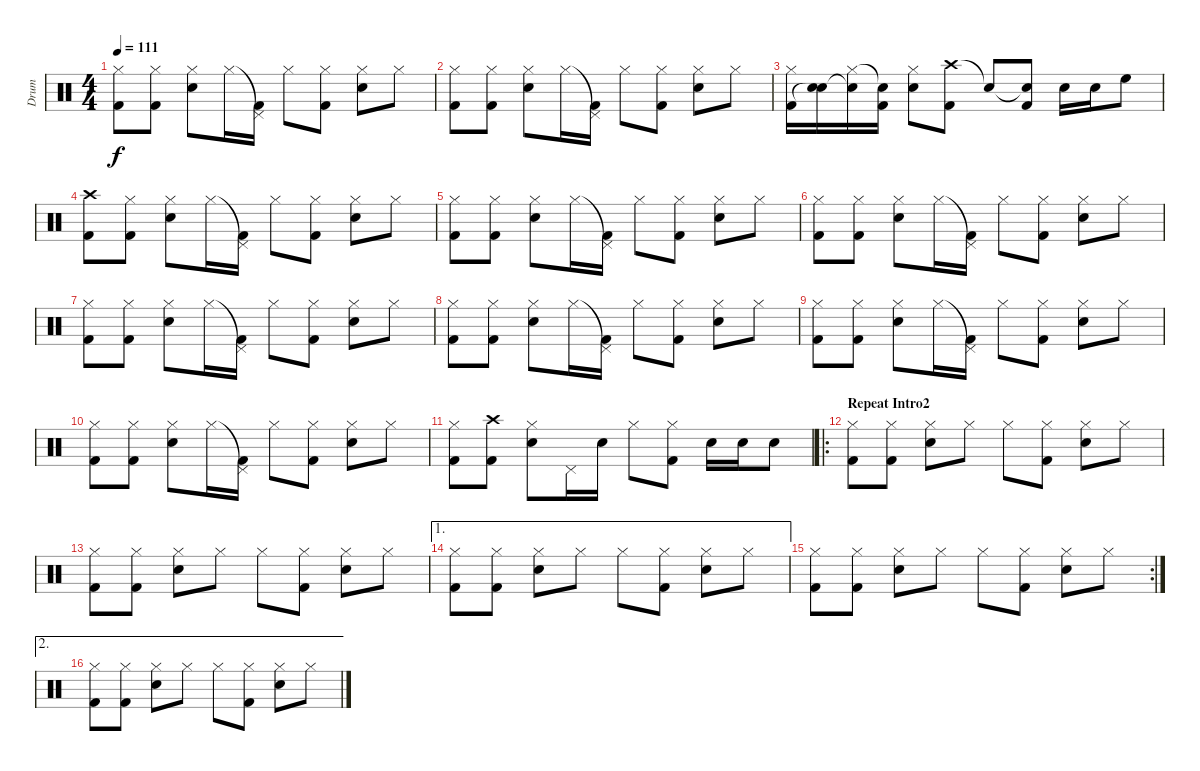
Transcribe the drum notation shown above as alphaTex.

\track ("Drum" "Drum") {instrument percussion}
\staff {score}
\articulation defaults
\ts (4 4)
\tempo 111
\clef neutral
\ks c
("Hi-Hat (closed)" "Kick (hit) 2").8{dy f} ("Hi-Hat (closed)" "Kick (hit) 2").8 ("Hi-Hat (closed)" "Snare (hit) 2").8 "Hi-Hat (closed)".16 ("Pedal Hi-Hat (hit)"{t} "Kick (hit) 2").16 "Hi-Hat (closed)".8 ("Hi-Hat (closed)" "Kick (hit) 2").8 ("Hi-Hat (closed)" "Snare (hit) 2").8 "Hi-Hat (closed)".8 |
("Hi-Hat (closed)" "Kick (hit) 2").8 ("Hi-Hat (closed)" "Kick (hit) 2").8 ("Hi-Hat (closed)" "Snare (hit) 2").8 "Hi-Hat (closed)".16 ("Pedal Hi-Hat (hit)"{t} "Kick (hit) 2").16 "Hi-Hat (closed)".8 ("Hi-Hat (closed)" "Kick (hit) 2").8 ("Hi-Hat (closed)" "Snare (hit) 2").8 "Hi-Hat (closed)".8 |
("Hi-Hat (closed)" "Kick (hit) 2").16 ("Snare (hit) 2" "Snare (hit)"{t}).16 ("Hi-Hat (closed)" "Snare (hit)"{t}).16 ("Snare (hit)"{t} "Kick (hit) 2").16 ("Hi-Hat (closed)" "Snare (hit) 2").8 ("Crash high (hit)" "Kick (hit) 2").8 "Snare (hit)"{t}.8 ("Snare (hit)"{t} "Kick (hit) 2").8 "Snare (hit) 2".16 "Snare (hit) 2".16 "High Floor Tom (hit)".8 |
("Crash high (hit)" "Kick (hit) 2").8 ("Hi-Hat (closed)" "Kick (hit) 2").8 ("Hi-Hat (closed)" "Snare (hit) 2").8 "Hi-Hat (closed)".16 ("Pedal Hi-Hat (hit)"{t} "Kick (hit) 2").16 "Hi-Hat (closed)".8 ("Hi-Hat (closed)" "Kick (hit) 2").8 ("Hi-Hat (closed)" "Snare (hit) 2").8 "Hi-Hat (closed)".8 |
("Hi-Hat (closed)" "Kick (hit) 2").8 ("Hi-Hat (closed)" "Kick (hit) 2").8 ("Hi-Hat (closed)" "Snare (hit) 2").8 "Hi-Hat (closed)".16 ("Pedal Hi-Hat (hit)"{t} "Kick (hit) 2").16 "Hi-Hat (closed)".8 ("Hi-Hat (closed)" "Kick (hit) 2").8 ("Hi-Hat (closed)" "Snare (hit) 2").8 "Hi-Hat (closed)".8 |
("Hi-Hat (closed)" "Kick (hit) 2").8 ("Hi-Hat (closed)" "Kick (hit) 2").8 ("Hi-Hat (closed)" "Snare (hit) 2").8 "Hi-Hat (closed)".16 ("Pedal Hi-Hat (hit)"{t} "Kick (hit) 2").16 "Hi-Hat (closed)".8 ("Hi-Hat (closed)" "Kick (hit) 2").8 ("Hi-Hat (closed)" "Snare (hit) 2").8 "Hi-Hat (closed)".8 |
("Hi-Hat (closed)" "Kick (hit) 2").8 ("Hi-Hat (closed)" "Kick (hit) 2").8 ("Hi-Hat (closed)" "Snare (hit) 2").8 "Hi-Hat (closed)".16 ("Pedal Hi-Hat (hit)"{t} "Kick (hit) 2").16 "Hi-Hat (closed)".8 ("Hi-Hat (closed)" "Kick (hit) 2").8 ("Hi-Hat (closed)" "Snare (hit) 2").8 "Hi-Hat (closed)".8 |
("Hi-Hat (closed)" "Kick (hit) 2").8 ("Hi-Hat (closed)" "Kick (hit) 2").8 ("Hi-Hat (closed)" "Snare (hit) 2").8 "Hi-Hat (closed)".16 ("Pedal Hi-Hat (hit)"{t} "Kick (hit) 2").16 "Hi-Hat (closed)".8 ("Hi-Hat (closed)" "Kick (hit) 2").8 ("Hi-Hat (closed)" "Snare (hit) 2").8 "Hi-Hat (closed)".8 |
("Hi-Hat (closed)" "Kick (hit) 2").8 ("Hi-Hat (closed)" "Kick (hit) 2").8 ("Hi-Hat (closed)" "Snare (hit) 2").8 "Hi-Hat (closed)".16 ("Pedal Hi-Hat (hit)"{t} "Kick (hit) 2").16 "Hi-Hat (closed)".8 ("Hi-Hat (closed)" "Kick (hit) 2").8 ("Hi-Hat (closed)" "Snare (hit) 2").8 "Hi-Hat (closed)".8 |
("Hi-Hat (closed)" "Kick (hit) 2").8 ("Hi-Hat (closed)" "Kick (hit) 2").8 ("Hi-Hat (closed)" "Snare (hit) 2").8 "Hi-Hat (closed)".16 ("Pedal Hi-Hat (hit)"{t} "Kick (hit) 2").16 "Hi-Hat (closed)".8 ("Hi-Hat (closed)" "Kick (hit) 2").8 ("Hi-Hat (closed)" "Snare (hit) 2").8 "Hi-Hat (closed)".8 |
("Hi-Hat (closed)" "Kick (hit) 2").8 ("Crash high (hit)" "Kick (hit) 2").8 ("Hi-Hat (closed)" "Snare (hit) 2").8 "Pedal Hi-Hat (hit)".16 "Snare (hit) 2".16 "Hi-Hat (closed)".8 ("Hi-Hat (closed)" "Kick (hit) 2").8 "Snare (hit) 2".16 "Snare (hit) 2".16 "Snare (hit) 2".8 |
\ro
\section ("" "Repeat Intro2")
("Hi-Hat (closed)" "Kick (hit) 2").8 ("Hi-Hat (closed)" "Kick (hit) 2").8 ("Hi-Hat (closed)" "Snare (hit) 2").8 "Hi-Hat (closed)".8 "Hi-Hat (closed)".8 ("Hi-Hat (closed)" "Kick (hit) 2").8 ("Hi-Hat (closed)" "Snare (hit) 2").8 "Hi-Hat (closed)".8 |
("Hi-Hat (closed)" "Kick (hit) 2").8 ("Hi-Hat (closed)" "Kick (hit) 2").8 ("Hi-Hat (closed)" "Snare (hit) 2").8 "Hi-Hat (closed)".8 "Hi-Hat (closed)".8 ("Hi-Hat (closed)" "Kick (hit) 2").8 ("Hi-Hat (closed)" "Snare (hit) 2").8 "Hi-Hat (closed)".8 |
\ae 1
("Hi-Hat (closed)" "Kick (hit) 2").8 ("Hi-Hat (closed)" "Kick (hit) 2").8 ("Hi-Hat (closed)" "Snare (hit) 2").8 "Hi-Hat (closed)".8 "Hi-Hat (closed)".8 ("Hi-Hat (closed)" "Kick (hit) 2").8 ("Hi-Hat (closed)" "Snare (hit) 2").8 "Hi-Hat (closed)".8 |
\rc 2
("Hi-Hat (closed)" "Kick (hit) 2").8 ("Hi-Hat (closed)" "Kick (hit) 2").8 ("Hi-Hat (closed)" "Snare (hit) 2").8 "Hi-Hat (closed)".8 "Hi-Hat (closed)".8 ("Hi-Hat (closed)" "Kick (hit) 2").8 ("Hi-Hat (closed)" "Snare (hit) 2").8 "Hi-Hat (closed)".8 |
\ae 2
("Hi-Hat (closed)" "Kick (hit) 2").8 ("Hi-Hat (closed)" "Kick (hit) 2").8 ("Hi-Hat (closed)" "Snare (hit) 2").8 "Hi-Hat (closed)".8 "Hi-Hat (closed)".8 ("Hi-Hat (closed)" "Kick (hit) 2").8 ("Hi-Hat (closed)" "Snare (hit) 2").8 "Hi-Hat (closed)".8
